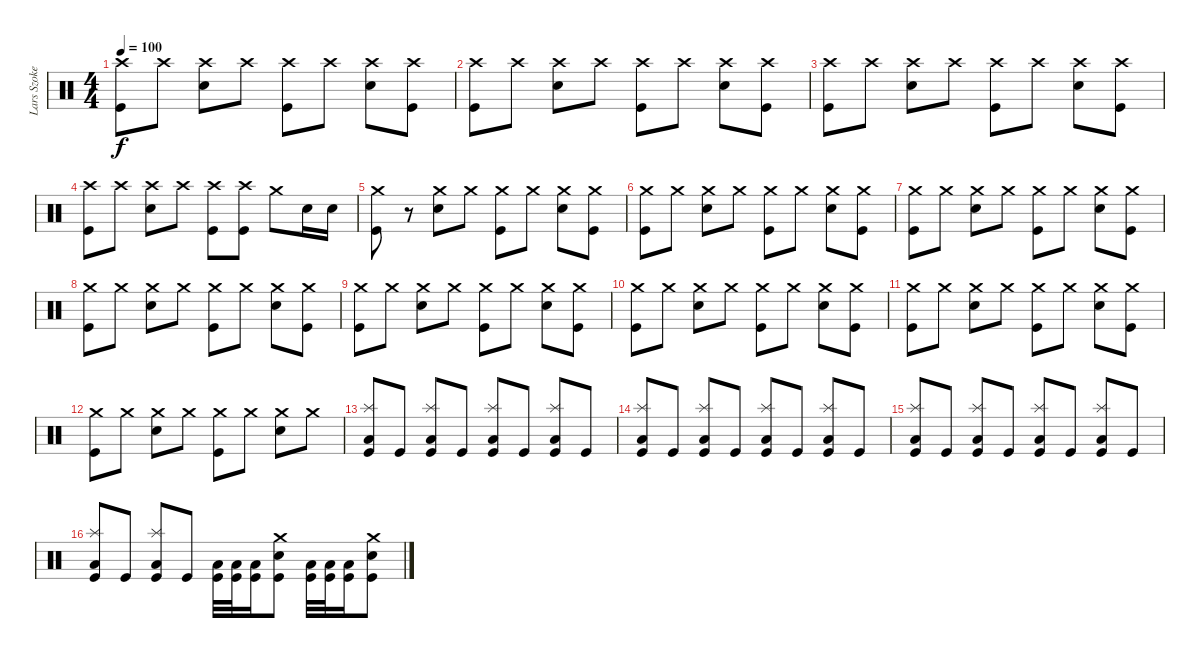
\track ("Lars Szoke" "Lars Szoke") {instrument percussion}
\staff {score}
\articulation defaults
\ts (4 4)
\tempo 100
\clef neutral
\ks c
("Crash high (hit)" "Kick (hit)").8{dy f} "Crash high (hit)".8 ("Crash high (hit)" "Electric Snare (hit)").8 "Crash high (hit)".8 ("Crash high (hit)" "Kick (hit)").8 "Crash high (hit)".8 ("Crash high (hit)" "Electric Snare (hit)").8 ("Crash high (hit)" "Kick (hit)").8 |
("Crash high (hit)" "Kick (hit)").8 "Crash high (hit)".8 ("Crash high (hit)" "Electric Snare (hit)").8 "Crash high (hit)".8 ("Crash high (hit)" "Kick (hit)").8 "Crash high (hit)".8 ("Crash high (hit)" "Electric Snare (hit)").8 ("Crash high (hit)" "Kick (hit)").8 |
("Crash high (hit)" "Kick (hit)").8 "Crash high (hit)".8 ("Crash high (hit)" "Electric Snare (hit)").8 "Crash high (hit)".8 ("Crash high (hit)" "Kick (hit)").8 "Crash high (hit)".8 ("Crash high (hit)" "Electric Snare (hit)").8 ("Crash high (hit)" "Kick (hit)").8 |
("Crash high (hit)" "Kick (hit)").8 "Crash high (hit)".8 ("Crash high (hit)" "Electric Snare (hit)").8 "Crash high (hit)".8 ("Crash high (hit)" "Kick (hit)").8 ("Crash high (hit)" "Kick (hit)").8 "Crash medium (hit)".8 "Electric Snare (hit)".16 "Electric Snare (hit)".16 |
("Crash medium (hit)" "Kick (hit)").8 r.8 ("Crash medium (hit)" "Electric Snare (hit)").8 "Crash medium (hit)".8 ("Crash medium (hit)" "Kick (hit)").8 "Crash medium (hit)".8 ("Crash medium (hit)" "Electric Snare (hit)").8 ("Crash medium (hit)" "Kick (hit)").8 |
("Crash medium (hit)" "Kick (hit)").8 "Crash medium (hit)".8 ("Crash medium (hit)" "Electric Snare (hit)").8 "Crash medium (hit)".8 ("Crash medium (hit)" "Kick (hit)").8 "Crash medium (hit)".8 ("Crash medium (hit)" "Electric Snare (hit)").8 ("Crash medium (hit)" "Kick (hit)").8 |
("Crash medium (hit)" "Kick (hit)").8 "Crash medium (hit)".8 ("Crash medium (hit)" "Electric Snare (hit)").8 "Crash medium (hit)".8 ("Crash medium (hit)" "Kick (hit)").8 "Crash medium (hit)".8 ("Crash medium (hit)" "Electric Snare (hit)").8 ("Crash medium (hit)" "Kick (hit)").8 |
("Crash medium (hit)" "Kick (hit)").8 "Crash medium (hit)".8 ("Crash medium (hit)" "Electric Snare (hit)").8 "Crash medium (hit)".8 ("Crash medium (hit)" "Kick (hit)").8 "Crash medium (hit)".8 ("Crash medium (hit)" "Electric Snare (hit)").8 ("Crash medium (hit)" "Kick (hit)").8 |
("Crash medium (hit)" "Kick (hit)").8 "Crash medium (hit)".8 ("Crash medium (hit)" "Electric Snare (hit)").8 "Crash medium (hit)".8 ("Crash medium (hit)" "Kick (hit)").8 "Crash medium (hit)".8 ("Crash medium (hit)" "Electric Snare (hit)").8 ("Crash medium (hit)" "Kick (hit)").8 |
("Crash medium (hit)" "Kick (hit)").8 "Crash medium (hit)".8 ("Crash medium (hit)" "Electric Snare (hit)").8 "Crash medium (hit)".8 ("Crash medium (hit)" "Kick (hit)").8 "Crash medium (hit)".8 ("Crash medium (hit)" "Electric Snare (hit)").8 ("Crash medium (hit)" "Kick (hit)").8 |
("Crash medium (hit)" "Kick (hit)").8 "Crash medium (hit)".8 ("Crash medium (hit)" "Electric Snare (hit)").8 "Crash medium (hit)".8 ("Crash medium (hit)" "Kick (hit)").8 "Crash medium (hit)".8 ("Crash medium (hit)" "Electric Snare (hit)").8 ("Crash medium (hit)" "Kick (hit)").8 |
("Crash medium (hit)" "Kick (hit)").8 "Crash medium (hit)".8 ("Crash medium (hit)" "Electric Snare (hit)").8 "Crash medium (hit)".8 ("Crash medium (hit)" "Kick (hit)").8 "Crash medium (hit)".8 ("Crash medium (hit)" "Electric Snare (hit)").8 "Crash medium (hit)".8 |
("Splash (hit)" "Low Tom (hit)" "Kick (hit)").8 "Kick (hit)".8 ("Splash (hit)" "Low Tom (hit)" "Kick (hit)").8 "Kick (hit)".8 ("Splash (hit)" "Low Tom (hit)" "Kick (hit)").8 "Kick (hit)".8 ("Splash (hit)" "Low Tom (hit)" "Kick (hit)").8 "Kick (hit)".8 |
("Splash (hit)" "Low Tom (hit)" "Kick (hit)").8 "Kick (hit)".8 ("Splash (hit)" "Low Tom (hit)" "Kick (hit)").8 "Kick (hit)".8 ("Splash (hit)" "Low Tom (hit)" "Kick (hit)").8 "Kick (hit)".8 ("Splash (hit)" "Low Tom (hit)" "Kick (hit)").8 "Kick (hit)".8 |
("Splash (hit)" "Low Tom (hit)" "Kick (hit)").8 "Kick (hit)".8 ("Splash (hit)" "Low Tom (hit)" "Kick (hit)").8 "Kick (hit)".8 ("Splash (hit)" "Low Tom (hit)" "Kick (hit)").8 "Kick (hit)".8 ("Splash (hit)" "Low Tom (hit)" "Kick (hit)").8 "Kick (hit)".8 |
("Splash (hit)" "Low Tom (hit)" "Kick (hit)").8 "Kick (hit)".8 ("Splash (hit)" "Low Tom (hit)" "Kick (hit)").8 "Kick (hit)".8 ("Low Tom (hit)" "Kick (hit)").32 ("Low Tom (hit)" "Kick (hit)").32 ("Low Tom (hit)" "Kick (hit)").16 ("Crash medium (hit)" "Electric Snare (hit)" "Kick (hit)").8 ("Low Tom (hit)" "Kick (hit)").32 ("Low Tom (hit)" "Kick (hit)").32 ("Low Tom (hit)" "Kick (hit)").16 ("Crash medium (hit)" "Electric Snare (hit)" "Kick (hit)").8
